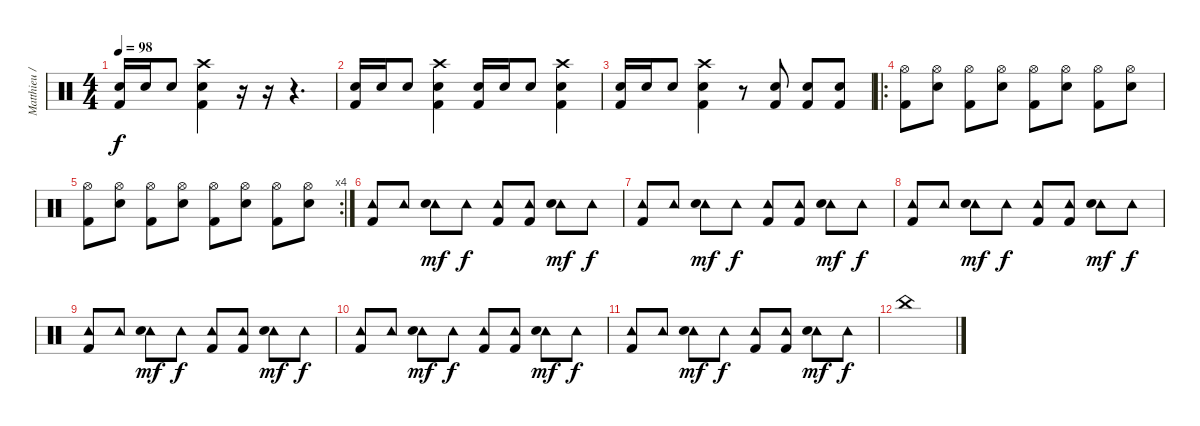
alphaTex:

\track ("Matthieu / batterie" "Matthieu /") {instrument percussion}
\staff {score}
\articulation defaults
\ts (4 4)
\tempo 98
\clef neutral
\ks c
("Snare (hit) 2" "Kick (hit) 2").16{dy f} "Snare (hit) 2".16 "Snare (hit) 2".8 ("Crash high (hit)" "Snare (hit) 2" "Kick (hit) 2").4 r.16 r.16 r.4{d} |
("Snare (hit) 2" "Kick (hit) 2").16 "Snare (hit) 2".16 "Snare (hit) 2".8 ("Crash high (hit)" "Snare (hit) 2" "Kick (hit) 2").4 ("Snare (hit) 2" "Kick (hit) 2").16 "Snare (hit) 2".16 "Snare (hit) 2".8 ("Crash high (hit)" "Snare (hit) 2" "Kick (hit) 2").4 |
("Snare (hit) 2" "Kick (hit) 2").16 "Snare (hit) 2".16 "Snare (hit) 2".8 ("Crash high (hit)" "Snare (hit) 2" "Kick (hit) 2").4 r.8 ("Snare (hit) 2" "Kick (hit) 2").8 ("Snare (hit) 2" "Kick (hit) 2").8 ("Snare (hit) 2" "Kick (hit) 2").8 |
\ro
("Hi-Hat (open)" "Kick (hit) 2").8 ("Hi-Hat (open)" "Snare (hit) 2").8 ("Hi-Hat (open)" "Kick (hit) 2").8 ("Hi-Hat (open)" "Snare (hit) 2").8 ("Hi-Hat (open)" "Kick (hit) 2").8 ("Hi-Hat (open)" "Snare (hit) 2").8 ("Hi-Hat (open)" "Kick (hit) 2").8 ("Hi-Hat (open)" "Snare (hit) 2").8 |
\rc 4
("Hi-Hat (open)" "Kick (hit) 2").8 ("Hi-Hat (open)" "Snare (hit) 2").8 ("Hi-Hat (open)" "Kick (hit) 2").8 ("Hi-Hat (open)" "Snare (hit) 2").8 ("Hi-Hat (open)" "Kick (hit) 2").8 ("Hi-Hat (open)" "Snare (hit) 2").8 ("Hi-Hat (open)" "Kick (hit) 2").8 ("Hi-Hat (open)" "Snare (hit) 2").8 |
("Tambourine (hit)" "Kick (hit) 2").8 "Tambourine (hit)".8 ("Tambourine (hit)" "Snare (hit) 2").8{dy mf} "Tambourine (hit)".8{dy f} ("Tambourine (hit)" "Kick (hit) 2").8 ("Tambourine (hit)" "Kick (hit) 2").8 ("Tambourine (hit)" "Snare (hit) 2").8{dy mf} "Tambourine (hit)".8{dy f} |
("Tambourine (hit)" "Kick (hit) 2").8 "Tambourine (hit)".8 ("Tambourine (hit)" "Snare (hit) 2").8{dy mf} "Tambourine (hit)".8{dy f} ("Tambourine (hit)" "Kick (hit) 2").8 ("Tambourine (hit)" "Kick (hit) 2").8 ("Tambourine (hit)" "Snare (hit) 2").8{dy mf} "Tambourine (hit)".8{dy f} |
("Tambourine (hit)" "Kick (hit) 2").8 "Tambourine (hit)".8 ("Tambourine (hit)" "Snare (hit) 2").8{dy mf} "Tambourine (hit)".8{dy f} ("Tambourine (hit)" "Kick (hit) 2").8 ("Tambourine (hit)" "Kick (hit) 2").8 ("Tambourine (hit)" "Snare (hit) 2").8{dy mf} "Tambourine (hit)".8{dy f} |
("Tambourine (hit)" "Kick (hit) 2").8 "Tambourine (hit)".8 ("Tambourine (hit)" "Snare (hit) 2").8{dy mf} "Tambourine (hit)".8{dy f} ("Tambourine (hit)" "Kick (hit) 2").8 ("Tambourine (hit)" "Kick (hit) 2").8 ("Tambourine (hit)" "Snare (hit) 2").8{dy mf} "Tambourine (hit)".8{dy f} |
("Tambourine (hit)" "Kick (hit) 2").8 "Tambourine (hit)".8 ("Tambourine (hit)" "Snare (hit) 2").8{dy mf} "Tambourine (hit)".8{dy f} ("Tambourine (hit)" "Kick (hit) 2").8 ("Tambourine (hit)" "Kick (hit) 2").8 ("Tambourine (hit)" "Snare (hit) 2").8{dy mf} "Tambourine (hit)".8{dy f} |
("Tambourine (hit)" "Kick (hit) 2").8 "Tambourine (hit)".8 ("Tambourine (hit)" "Snare (hit) 2").8{dy mf} "Tambourine (hit)".8{dy f} ("Tambourine (hit)" "Kick (hit) 2").8 ("Tambourine (hit)" "Kick (hit) 2").8 ("Tambourine (hit)" "Snare (hit) 2").8{dy mf} "Tambourine (hit)".8{dy f} |
"China (hit)".1
